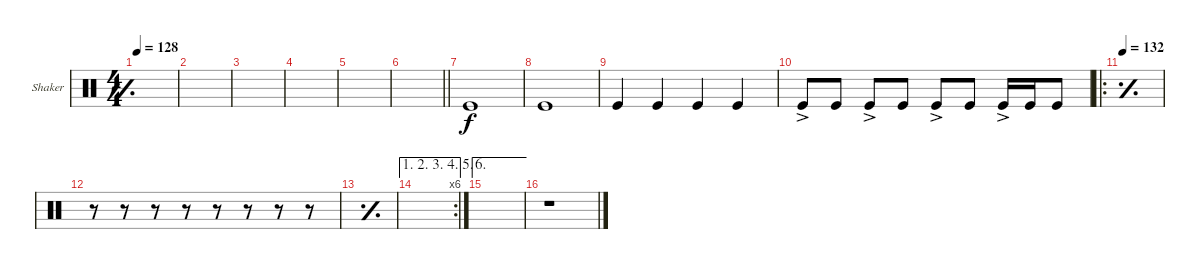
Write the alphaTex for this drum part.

\defaultSystemsLayout 4
\bracketExtendMode groupsimilarinstruments
\firstSystemTrackNameOrientation horizontal
\otherSystemsTrackNameOrientation horizontal
\track ("Shaker" "Shaker") {instrument percussion}
\staff {score}
\articulation defaults
\ts (4 4)
\tempo 128
\clef neutral
\simile simple
\scale
0.333333
\ks c
|
\scale
0.333333 |
\scale
0.333333 |
\scale
0.333333 |
\scale
0.333333 |
\scale
0.333333
\barLineRight lightlight
|
\simile none
\scale
0.333333 "Kick (hit)".1 |
\scale
0.333333 "Kick (hit)".1 |
\scale
0.311475 "Kick (hit)".4 "Kick (hit)".4 "Kick (hit)".4 "Kick (hit)".4 |
\scale
0.311475 "Kick (hit)"{ac}.8 "Kick (hit)".8 "Kick (hit)"{ac}.8 "Kick (hit)".8 "Kick (hit)"{ac}.8 "Kick (hit)".8 "Kick (hit)"{ac}.16 "Kick (hit)".16 "Kick (hit)".8 |
\ro
\tempo 132
\simile simple
\scale
0.377049 |
\simile none
\scale
0.322034 r.8 r.8 r.8 r.8 r.8 r.8 r.8 r.8 |
\simile simple
\scale
0.322034 |
\ae (1 2 3 4 5)
\rc 6
\scale
0.355932 |
\ae 6
|
\simile none
r.1
